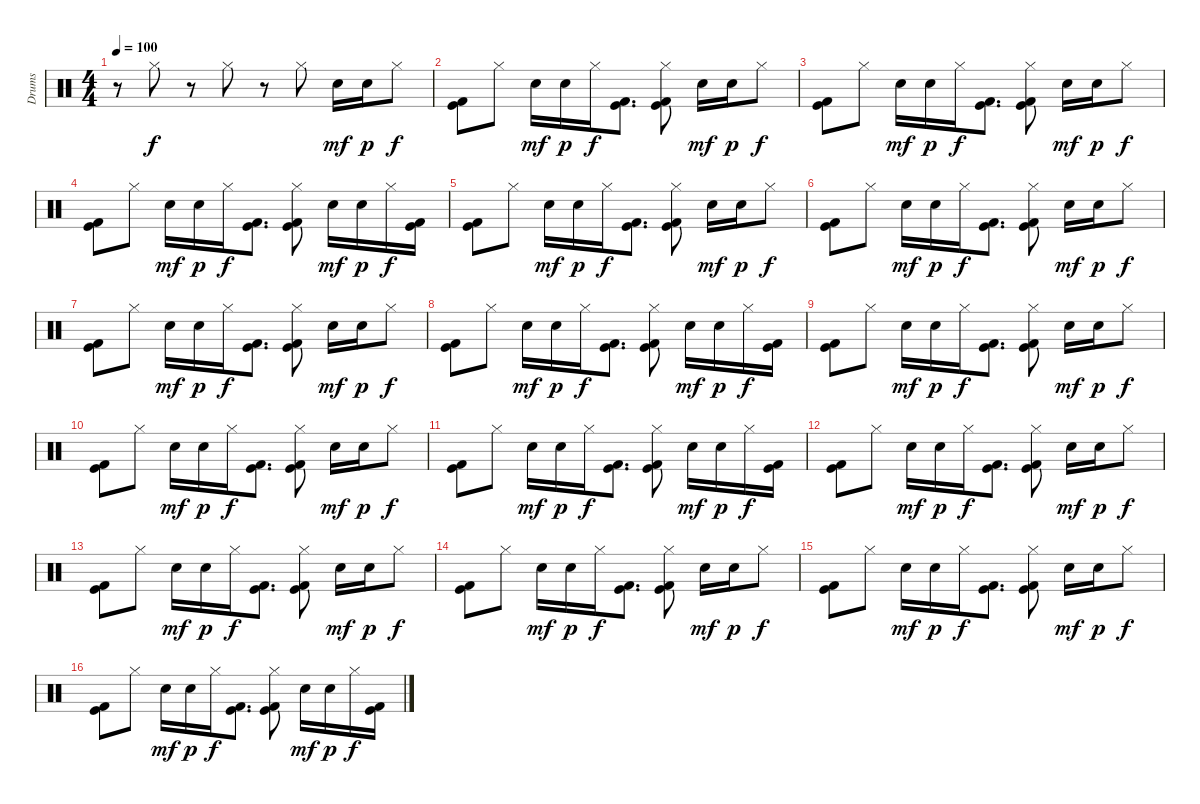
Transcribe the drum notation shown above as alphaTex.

\track ("Drums" "Drums") {instrument percussion}
\staff {score}
\articulation defaults
\ts (4 4)
\tempo 100
\clef neutral
\ks c
r.8{dy f} "Hi-Hat (closed)".8 r.8 "Hi-Hat (closed)".8 r.8 "Hi-Hat (closed)".8 "Hand Clap (hit)".16{dy mf} "Hand Clap (hit)".16{dy p} "Hi-Hat (closed)".8{dy f} |
("Kick (hit)" "Kick (hit) 2").8 "Hi-Hat (closed)".8 "Hand Clap (hit)".16{dy mf} "Hand Clap (hit)".16{dy p} "Hi-Hat (closed)".16{dy f} ("Kick (hit)" "Kick (hit) 2").8{d} ("Kick (hit)" "Kick (hit) 2" "Hi-Hat (closed)").8 "Hand Clap (hit)".16{dy mf} "Hand Clap (hit)".16{dy p} "Hi-Hat (closed)".8{dy f} |
("Kick (hit)" "Kick (hit) 2").8 "Hi-Hat (closed)".8 "Hand Clap (hit)".16{dy mf} "Hand Clap (hit)".16{dy p} "Hi-Hat (closed)".16{dy f} ("Kick (hit)" "Kick (hit) 2").8{d} ("Kick (hit)" "Kick (hit) 2" "Hi-Hat (closed)").8 "Hand Clap (hit)".16{dy mf} "Hand Clap (hit)".16{dy p} "Hi-Hat (closed)".8{dy f} |
("Kick (hit)" "Kick (hit) 2").8 "Hi-Hat (closed)".8 "Hand Clap (hit)".16{dy mf} "Hand Clap (hit)".16{dy p} "Hi-Hat (closed)".16{dy f} ("Kick (hit)" "Kick (hit) 2").8{d} ("Kick (hit)" "Kick (hit) 2" "Hi-Hat (closed)").8 "Hand Clap (hit)".16{dy mf} "Hand Clap (hit)".16{dy p} "Hi-Hat (closed)".16{dy f} ("Kick (hit)" "Kick (hit) 2").16 |
("Kick (hit)" "Kick (hit) 2").8 "Hi-Hat (closed)".8 "Hand Clap (hit)".16{dy mf} "Hand Clap (hit)".16{dy p} "Hi-Hat (closed)".16{dy f} ("Kick (hit)" "Kick (hit) 2").8{d} ("Kick (hit)" "Kick (hit) 2" "Hi-Hat (closed)").8 "Hand Clap (hit)".16{dy mf} "Hand Clap (hit)".16{dy p} "Hi-Hat (closed)".8{dy f} |
("Kick (hit)" "Kick (hit) 2").8 "Hi-Hat (closed)".8 "Hand Clap (hit)".16{dy mf} "Hand Clap (hit)".16{dy p} "Hi-Hat (closed)".16{dy f} ("Kick (hit)" "Kick (hit) 2").8{d} ("Kick (hit)" "Kick (hit) 2" "Hi-Hat (closed)").8 "Hand Clap (hit)".16{dy mf} "Hand Clap (hit)".16{dy p} "Hi-Hat (closed)".8{dy f} |
("Kick (hit)" "Kick (hit) 2").8 "Hi-Hat (closed)".8 "Hand Clap (hit)".16{dy mf} "Hand Clap (hit)".16{dy p} "Hi-Hat (closed)".16{dy f} ("Kick (hit)" "Kick (hit) 2").8{d} ("Kick (hit)" "Kick (hit) 2" "Hi-Hat (closed)").8 "Hand Clap (hit)".16{dy mf} "Hand Clap (hit)".16{dy p} "Hi-Hat (closed)".8{dy f} |
("Kick (hit)" "Kick (hit) 2").8 "Hi-Hat (closed)".8 "Hand Clap (hit)".16{dy mf} "Hand Clap (hit)".16{dy p} "Hi-Hat (closed)".16{dy f} ("Kick (hit)" "Kick (hit) 2").8{d} ("Kick (hit)" "Kick (hit) 2" "Hi-Hat (closed)").8 "Hand Clap (hit)".16{dy mf} "Hand Clap (hit)".16{dy p} "Hi-Hat (closed)".16{dy f} ("Kick (hit)" "Kick (hit) 2").16 |
("Kick (hit)" "Kick (hit) 2").8 "Hi-Hat (closed)".8 "Hand Clap (hit)".16{dy mf} "Hand Clap (hit)".16{dy p} "Hi-Hat (closed)".16{dy f} ("Kick (hit)" "Kick (hit) 2").8{d} ("Kick (hit)" "Kick (hit) 2" "Hi-Hat (closed)").8 "Hand Clap (hit)".16{dy mf} "Hand Clap (hit)".16{dy p} "Hi-Hat (closed)".8{dy f} |
("Kick (hit)" "Kick (hit) 2").8 "Hi-Hat (closed)".8 "Hand Clap (hit)".16{dy mf} "Hand Clap (hit)".16{dy p} "Hi-Hat (closed)".16{dy f} ("Kick (hit)" "Kick (hit) 2").8{d} ("Kick (hit)" "Kick (hit) 2" "Hi-Hat (closed)").8 "Hand Clap (hit)".16{dy mf} "Hand Clap (hit)".16{dy p} "Hi-Hat (closed)".8{dy f} |
("Kick (hit)" "Kick (hit) 2").8 "Hi-Hat (closed)".8 "Hand Clap (hit)".16{dy mf} "Hand Clap (hit)".16{dy p} "Hi-Hat (closed)".16{dy f} ("Kick (hit)" "Kick (hit) 2").8{d} ("Kick (hit)" "Kick (hit) 2" "Hi-Hat (closed)").8 "Hand Clap (hit)".16{dy mf} "Hand Clap (hit)".16{dy p} "Hi-Hat (closed)".16{dy f} ("Kick (hit)" "Kick (hit) 2").16 |
("Kick (hit)" "Kick (hit) 2").8 "Hi-Hat (closed)".8 "Hand Clap (hit)".16{dy mf} "Hand Clap (hit)".16{dy p} "Hi-Hat (closed)".16{dy f} ("Kick (hit)" "Kick (hit) 2").8{d} ("Kick (hit)" "Kick (hit) 2" "Hi-Hat (closed)").8 "Hand Clap (hit)".16{dy mf} "Hand Clap (hit)".16{dy p} "Hi-Hat (closed)".8{dy f} |
("Kick (hit)" "Kick (hit) 2").8 "Hi-Hat (closed)".8 "Hand Clap (hit)".16{dy mf} "Hand Clap (hit)".16{dy p} "Hi-Hat (closed)".16{dy f} ("Kick (hit)" "Kick (hit) 2").8{d} ("Kick (hit)" "Kick (hit) 2" "Hi-Hat (closed)").8 "Hand Clap (hit)".16{dy mf} "Hand Clap (hit)".16{dy p} "Hi-Hat (closed)".8{dy f} |
("Kick (hit)" "Kick (hit) 2").8 "Hi-Hat (closed)".8 "Hand Clap (hit)".16{dy mf} "Hand Clap (hit)".16{dy p} "Hi-Hat (closed)".16{dy f} ("Kick (hit)" "Kick (hit) 2").8{d} ("Kick (hit)" "Kick (hit) 2" "Hi-Hat (closed)").8 "Hand Clap (hit)".16{dy mf} "Hand Clap (hit)".16{dy p} "Hi-Hat (closed)".8{dy f} |
("Kick (hit)" "Kick (hit) 2").8 "Hi-Hat (closed)".8 "Hand Clap (hit)".16{dy mf} "Hand Clap (hit)".16{dy p} "Hi-Hat (closed)".16{dy f} ("Kick (hit)" "Kick (hit) 2").8{d} ("Kick (hit)" "Kick (hit) 2" "Hi-Hat (closed)").8 "Hand Clap (hit)".16{dy mf} "Hand Clap (hit)".16{dy p} "Hi-Hat (closed)".8{dy f} |
("Kick (hit)" "Kick (hit) 2").8 "Hi-Hat (closed)".8 "Hand Clap (hit)".16{dy mf} "Hand Clap (hit)".16{dy p} "Hi-Hat (closed)".16{dy f} ("Kick (hit)" "Kick (hit) 2").8{d} ("Kick (hit)" "Kick (hit) 2" "Hi-Hat (closed)").8 "Hand Clap (hit)".16{dy mf} "Hand Clap (hit)".16{dy p} "Hi-Hat (closed)".16{dy f} ("Kick (hit)" "Kick (hit) 2").16
